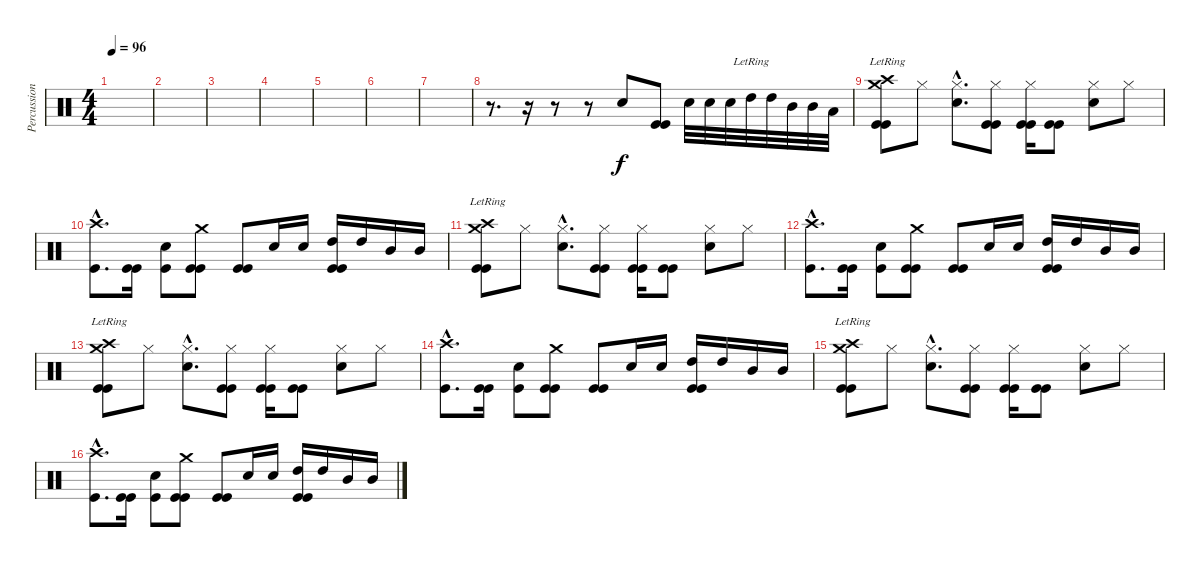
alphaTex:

\track ("Percussion" "Percussion") {instrument percussion}
\staff {score}
\articulation defaults
\ts (4 4)
\tempo 96
\clef neutral
\ks c
|
|
|
|
|
|
|
r.8{d} r.16 r.8 r.8 "Snare (hit) 2".8 ("Kick (hit)" "Kick (hit)").8 "Snare (hit) 2".32 "Snare (hit) 2".32 "Snare (hit) 2".32 "High Tom (hit)"{lr}.32 "High Tom (hit)".32 "Mid Tom (hit)".32 "Mid Tom (hit)".32 "Low Floor Tom (hit)".32 |
("Kick (hit)" "Kick (hit)" "Crash high (hit)"{lr} "Crash medium (hit)"{lr}).8 "Hi-Hat (closed)".8 ("Snare (hit) 2"{hac} "Hi-Hat (closed)"{hac}).8{d} ("Kick (hit)" "Kick (hit)" "Hi-Hat (closed)").8 ("Kick (hit)" "Kick (hit)" "Hi-Hat (closed)").16 ("Kick (hit)" "Kick (hit)").8 ("Snare (hit) 2" "Hi-Hat (closed)").8 "Hi-Hat (closed)".8 |
("Crash high (hit)"{hac} "Kick (hit)"{hac}).8{d} ("Kick (hit)" "Kick (hit)").16 ("Snare (hit) 2" "Kick (hit)").8 ("Crash medium (hit)" "Kick (hit)" "Kick (hit)").8 ("Kick (hit)" "Kick (hit)").8 "Snare (hit) 2".16 "Snare (hit) 2".16 ("Kick (hit)" "Kick (hit)" "High Tom (hit)").16 "High Tom (hit)".16 "Mid Tom (hit)".16 "Mid Tom (hit)".16 |
("Kick (hit)" "Kick (hit)" "Crash high (hit)"{lr} "Crash medium (hit)"{lr}).8 "Hi-Hat (closed)".8 ("Snare (hit) 2"{hac} "Hi-Hat (closed)"{hac}).8{d} ("Kick (hit)" "Kick (hit)" "Hi-Hat (closed)").8 ("Kick (hit)" "Kick (hit)" "Hi-Hat (closed)").16 ("Kick (hit)" "Kick (hit)").8 ("Snare (hit) 2" "Hi-Hat (closed)").8 "Hi-Hat (closed)".8 |
("Crash high (hit)"{hac} "Kick (hit)"{hac}).8{d} ("Kick (hit)" "Kick (hit)").16 ("Snare (hit) 2" "Kick (hit)").8 ("Crash medium (hit)" "Kick (hit)" "Kick (hit)").8 ("Kick (hit)" "Kick (hit)").8 "Snare (hit) 2".16 "Snare (hit) 2".16 ("Kick (hit)" "Kick (hit)" "High Tom (hit)").16 "High Tom (hit)".16 "Mid Tom (hit)".16 "Mid Tom (hit)".16 |
("Kick (hit)" "Kick (hit)" "Crash high (hit)"{lr} "Crash medium (hit)"{lr}).8 "Hi-Hat (closed)".8 ("Snare (hit) 2"{hac} "Hi-Hat (closed)"{hac}).8{d} ("Kick (hit)" "Kick (hit)" "Hi-Hat (closed)").8 ("Kick (hit)" "Kick (hit)" "Hi-Hat (closed)").16 ("Kick (hit)" "Kick (hit)").8 ("Snare (hit) 2" "Hi-Hat (closed)").8 "Hi-Hat (closed)".8 |
("Crash high (hit)"{hac} "Kick (hit)"{hac}).8{d} ("Kick (hit)" "Kick (hit)").16 ("Snare (hit) 2" "Kick (hit)").8 ("Crash medium (hit)" "Kick (hit)" "Kick (hit)").8 ("Kick (hit)" "Kick (hit)").8 "Snare (hit) 2".16 "Snare (hit) 2".16 ("Kick (hit)" "Kick (hit)" "High Tom (hit)").16 "High Tom (hit)".16 "Mid Tom (hit)".16 "Mid Tom (hit)".16 |
("Kick (hit)" "Kick (hit)" "Crash high (hit)"{lr} "Crash medium (hit)"{lr}).8 "Hi-Hat (closed)".8 ("Snare (hit) 2"{hac} "Hi-Hat (closed)"{hac}).8{d} ("Kick (hit)" "Kick (hit)" "Hi-Hat (closed)").8 ("Kick (hit)" "Kick (hit)" "Hi-Hat (closed)").16 ("Kick (hit)" "Kick (hit)").8 ("Snare (hit) 2" "Hi-Hat (closed)").8 "Hi-Hat (closed)".8 |
("Crash high (hit)"{hac} "Kick (hit)"{hac}).8{d} ("Kick (hit)" "Kick (hit)").16 ("Snare (hit) 2" "Kick (hit)").8 ("Crash medium (hit)" "Kick (hit)" "Kick (hit)").8 ("Kick (hit)" "Kick (hit)").8 "Snare (hit) 2".16 "Snare (hit) 2".16 ("Kick (hit)" "Kick (hit)" "High Tom (hit)").16 "High Tom (hit)".16 "Mid Tom (hit)".16 "Mid Tom (hit)".16
